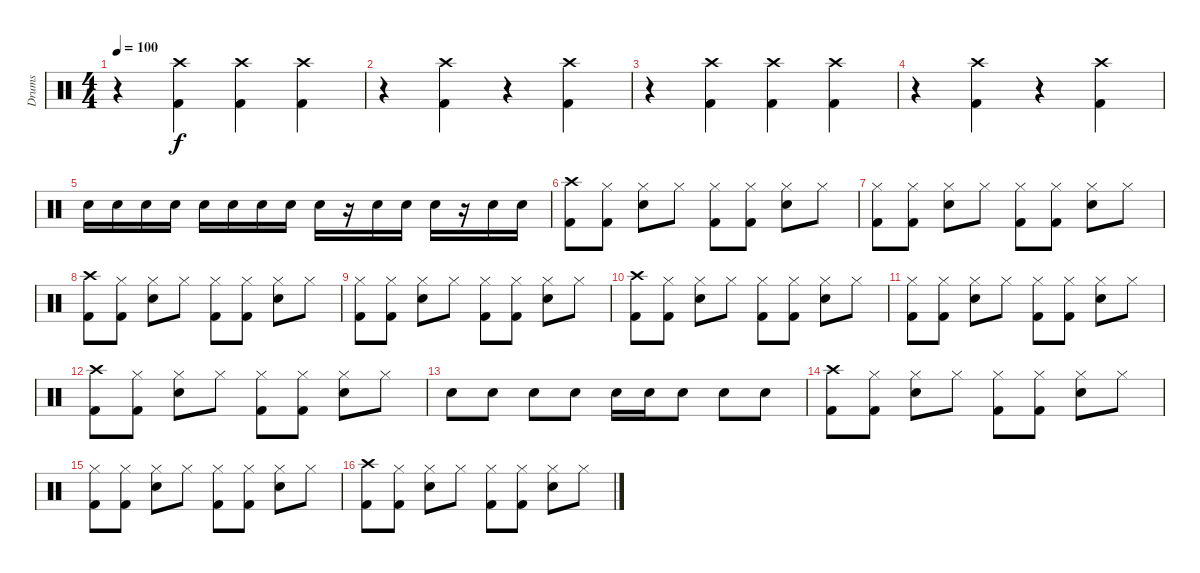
\track ("Drums" "Drums") {instrument percussion}
\staff {score}
\articulation defaults
\ts (4 4)
\tempo 100
\clef neutral
\ks c
r.4{dy f} ("Crash high (hit)" "Kick (hit) 2").4 ("Crash high (hit)" "Kick (hit) 2").4 ("Crash high (hit)" "Kick (hit) 2").4 |
r.4 ("Crash high (hit)" "Kick (hit) 2").4 r.4 ("Crash high (hit)" "Kick (hit) 2").4 |
r.4 ("Crash high (hit)" "Kick (hit) 2").4 ("Crash high (hit)" "Kick (hit) 2").4 ("Crash high (hit)" "Kick (hit) 2").4 |
r.4 ("Crash high (hit)" "Kick (hit) 2").4 r.4 ("Crash high (hit)" "Kick (hit) 2").4 |
"Electric Snare (hit)".16 "Electric Snare (hit)".16 "Electric Snare (hit)".16 "Electric Snare (hit)".16 "Electric Snare (hit)".16 "Electric Snare (hit)".16 "Electric Snare (hit)".16 "Electric Snare (hit)".16 "Electric Snare (hit)".16 r.16 "Electric Snare (hit)".16 "Electric Snare (hit)".16 "Electric Snare (hit)".16 r.16 "Electric Snare (hit)".16 "Electric Snare (hit)".16 |
("Crash high (hit)" "Kick (hit) 2").8 ("Hi-Hat (closed)" "Kick (hit) 2").8 ("Hi-Hat (closed)" "Electric Snare (hit)").8 "Hi-Hat (closed)".8 ("Hi-Hat (closed)" "Kick (hit) 2").8 ("Hi-Hat (closed)" "Kick (hit) 2").8 ("Hi-Hat (closed)" "Electric Snare (hit)").8 "Hi-Hat (closed)".8 |
("Hi-Hat (closed)" "Kick (hit) 2").8 ("Hi-Hat (closed)" "Kick (hit) 2").8 ("Hi-Hat (closed)" "Electric Snare (hit)").8 "Hi-Hat (closed)".8 ("Hi-Hat (closed)" "Kick (hit) 2").8 ("Hi-Hat (closed)" "Kick (hit) 2").8 ("Hi-Hat (closed)" "Electric Snare (hit)").8 "Hi-Hat (closed)".8 |
("Crash high (hit)" "Kick (hit) 2").8 ("Hi-Hat (closed)" "Kick (hit) 2").8 ("Hi-Hat (closed)" "Electric Snare (hit)").8 "Hi-Hat (closed)".8 ("Hi-Hat (closed)" "Kick (hit) 2").8 ("Hi-Hat (closed)" "Kick (hit) 2").8 ("Hi-Hat (closed)" "Electric Snare (hit)").8 "Hi-Hat (closed)".8 |
("Hi-Hat (closed)" "Kick (hit) 2").8 ("Hi-Hat (closed)" "Kick (hit) 2").8 ("Hi-Hat (closed)" "Electric Snare (hit)").8 "Hi-Hat (closed)".8 ("Hi-Hat (closed)" "Kick (hit) 2").8 ("Hi-Hat (closed)" "Kick (hit) 2").8 ("Hi-Hat (closed)" "Electric Snare (hit)").8 "Hi-Hat (closed)".8 |
("Crash high (hit)" "Kick (hit) 2").8 ("Hi-Hat (closed)" "Kick (hit) 2").8 ("Hi-Hat (closed)" "Electric Snare (hit)").8 "Hi-Hat (closed)".8 ("Hi-Hat (closed)" "Kick (hit) 2").8 ("Hi-Hat (closed)" "Kick (hit) 2").8 ("Hi-Hat (closed)" "Electric Snare (hit)").8 "Hi-Hat (closed)".8 |
("Hi-Hat (closed)" "Kick (hit) 2").8 ("Hi-Hat (closed)" "Kick (hit) 2").8 ("Hi-Hat (closed)" "Electric Snare (hit)").8 "Hi-Hat (closed)".8 ("Hi-Hat (closed)" "Kick (hit) 2").8 ("Hi-Hat (closed)" "Kick (hit) 2").8 ("Hi-Hat (closed)" "Electric Snare (hit)").8 "Hi-Hat (closed)".8 |
("Crash high (hit)" "Kick (hit) 2").8 ("Hi-Hat (closed)" "Kick (hit) 2").8 ("Hi-Hat (closed)" "Electric Snare (hit)").8 "Hi-Hat (closed)".8 ("Hi-Hat (closed)" "Kick (hit) 2").8 ("Hi-Hat (closed)" "Kick (hit) 2").8 ("Hi-Hat (closed)" "Electric Snare (hit)").8 "Hi-Hat (closed)".8 |
"Electric Snare (hit)".8 "Electric Snare (hit)".8 "Electric Snare (hit)".8 "Electric Snare (hit)".8 "Electric Snare (hit)".16 "Electric Snare (hit)".16 "Electric Snare (hit)".8 "Electric Snare (hit)".8 "Electric Snare (hit)".8 |
("Crash high (hit)" "Kick (hit) 2").8 ("Hi-Hat (closed)" "Kick (hit) 2").8 ("Hi-Hat (closed)" "Electric Snare (hit)").8 "Hi-Hat (closed)".8 ("Hi-Hat (closed)" "Kick (hit) 2").8 ("Hi-Hat (closed)" "Kick (hit) 2").8 ("Hi-Hat (closed)" "Electric Snare (hit)").8 "Hi-Hat (closed)".8 |
("Hi-Hat (closed)" "Kick (hit) 2").8 ("Hi-Hat (closed)" "Kick (hit) 2").8 ("Hi-Hat (closed)" "Electric Snare (hit)").8 "Hi-Hat (closed)".8 ("Hi-Hat (closed)" "Kick (hit) 2").8 ("Hi-Hat (closed)" "Kick (hit) 2").8 ("Hi-Hat (closed)" "Electric Snare (hit)").8 "Hi-Hat (closed)".8 |
("Crash high (hit)" "Kick (hit) 2").8 ("Hi-Hat (closed)" "Kick (hit) 2").8 ("Hi-Hat (closed)" "Electric Snare (hit)").8 "Hi-Hat (closed)".8 ("Hi-Hat (closed)" "Kick (hit) 2").8 ("Hi-Hat (closed)" "Kick (hit) 2").8 ("Hi-Hat (closed)" "Electric Snare (hit)").8 "Hi-Hat (closed)".8
